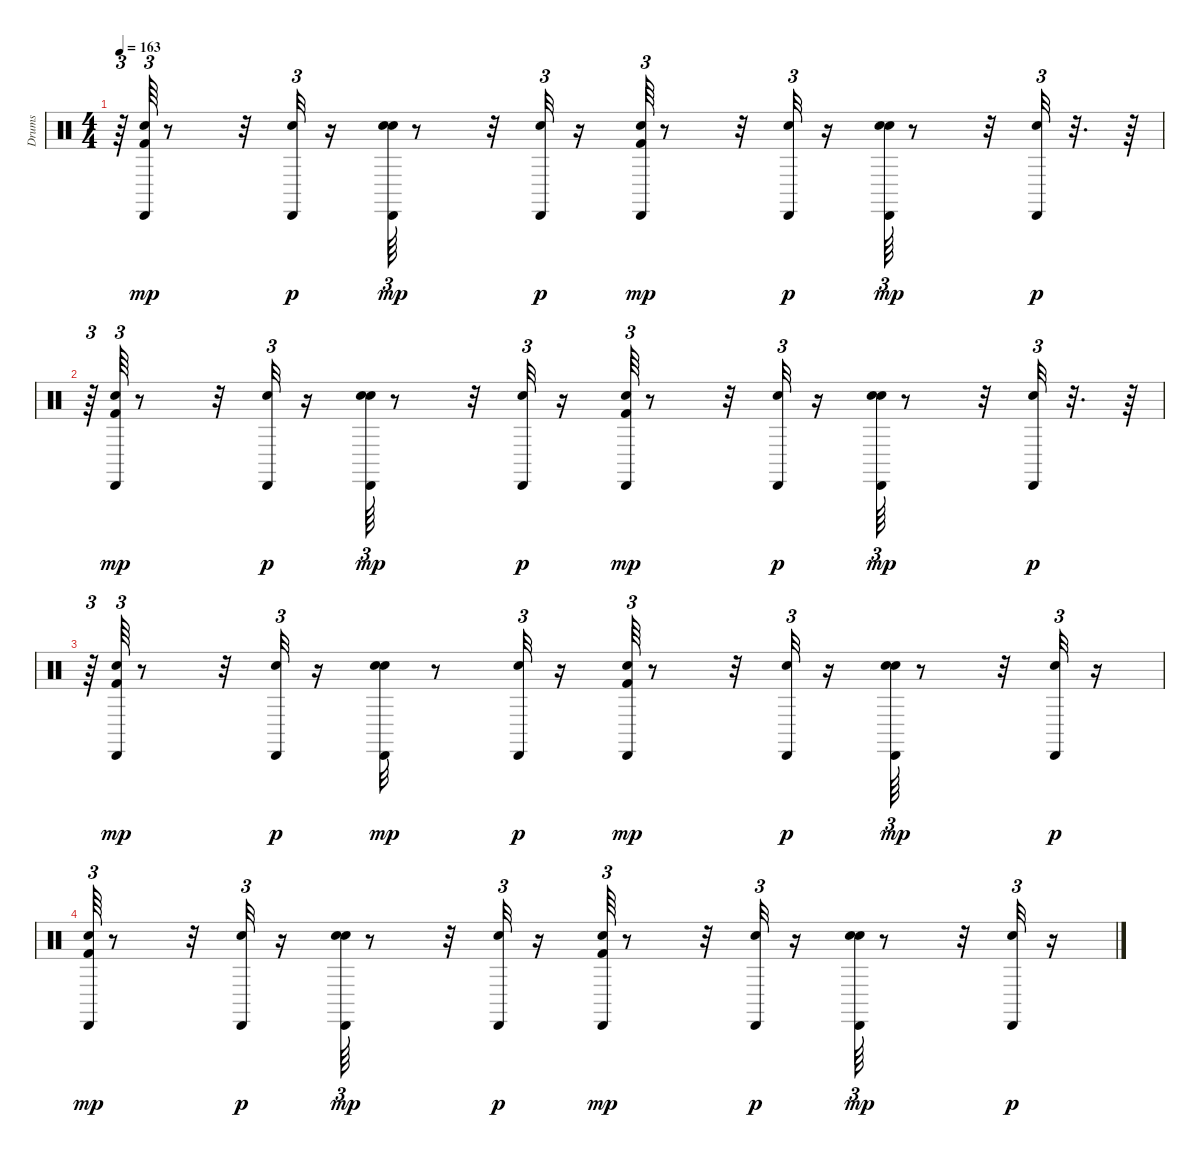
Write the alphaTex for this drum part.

\track ("Drums               " "Drums     ") {instrument percussion}
\staff {score}
\articulation defaults
\ts (4 4)
\tempo 163
\clef neutral
\ks c
r.64{tu (3 2) dy p} ("Kick (hit) 2" "Snare (hit) 2" "Cabasa (hit)").64{tu (3 2) dy mp} r.8 r.32 ("Snare (hit) 2" "Cabasa (hit)").32{tu (3 2) dy p} r.16 ("Snare (hit) 2" "Hand Clap (hit)" "Cabasa (hit)").64{tu (3 2) dy mp} r.8 r.32 ("Snare (hit) 2" "Cabasa (hit)").32{tu (3 2) dy p} r.16 ("Kick (hit) 2" "Snare (hit) 2" "Cabasa (hit)").64{tu (3 2) dy mp} r.8 r.32 ("Snare (hit) 2" "Cabasa (hit)").32{tu (3 2) dy p} r.16 ("Snare (hit) 2" "Hand Clap (hit)" "Cabasa (hit)").64{tu (3 2) dy mp} r.8 r.32 ("Snare (hit) 2" "Cabasa (hit)").32{tu (3 2) dy p} r.32{d} r.64 |
r.64{tu (3 2)} ("Kick (hit) 2" "Snare (hit) 2" "Cabasa (hit)").64{tu (3 2) dy mp} r.8 r.32 ("Snare (hit) 2" "Cabasa (hit)").32{tu (3 2) dy p} r.16 ("Snare (hit) 2" "Hand Clap (hit)" "Cabasa (hit)").64{tu (3 2) dy mp} r.8 r.32 ("Snare (hit) 2" "Cabasa (hit)").32{tu (3 2) dy p} r.16 ("Kick (hit) 2" "Snare (hit) 2" "Cabasa (hit)").64{tu (3 2) dy mp} r.8 r.32 ("Snare (hit) 2" "Cabasa (hit)").32{tu (3 2) dy p} r.16 ("Snare (hit) 2" "Hand Clap (hit)" "Cabasa (hit)").64{tu (3 2) dy mp} r.8 r.32 ("Snare (hit) 2" "Cabasa (hit)").32{tu (3 2) dy p} r.32{d} r.64 |
r.64{tu (3 2)} ("Kick (hit) 2" "Snare (hit) 2" "Cabasa (hit)").64{tu (3 2) dy mp} r.8 r.32 ("Snare (hit) 2" "Cabasa (hit)").32{tu (3 2) dy p} r.16 ("Snare (hit) 2" "Hand Clap (hit)" "Cabasa (hit)").32{dy mp} r.8 ("Snare (hit) 2" "Cabasa (hit)").32{tu (3 2) dy p} r.16 ("Kick (hit) 2" "Snare (hit) 2" "Cabasa (hit)").64{tu (3 2) dy mp} r.8 r.32 ("Snare (hit) 2" "Cabasa (hit)").32{tu (3 2) dy p} r.16 ("Snare (hit) 2" "Hand Clap (hit)" "Cabasa (hit)").64{tu (3 2) dy mp} r.8 r.32 ("Snare (hit) 2" "Cabasa (hit)").32{tu (3 2) dy p} r.16 |
("Kick (hit) 2" "Snare (hit) 2" "Cabasa (hit)").64{tu (3 2) dy mp} r.8 r.32 ("Snare (hit) 2" "Cabasa (hit)").32{tu (3 2) dy p} r.16 ("Snare (hit) 2" "Hand Clap (hit)" "Cabasa (hit)").64{tu (3 2) dy mp} r.8 r.32 ("Snare (hit) 2" "Cabasa (hit)").32{tu (3 2) dy p} r.16 ("Kick (hit) 2" "Snare (hit) 2" "Cabasa (hit)").64{tu (3 2) dy mp} r.8 r.32 ("Snare (hit) 2" "Cabasa (hit)").32{tu (3 2) dy p} r.16 ("Snare (hit) 2" "Hand Clap (hit)" "Cabasa (hit)").64{tu (3 2) dy mp} r.8 r.32 ("Snare (hit) 2" "Cabasa (hit)").32{tu (3 2) dy p} r.16
